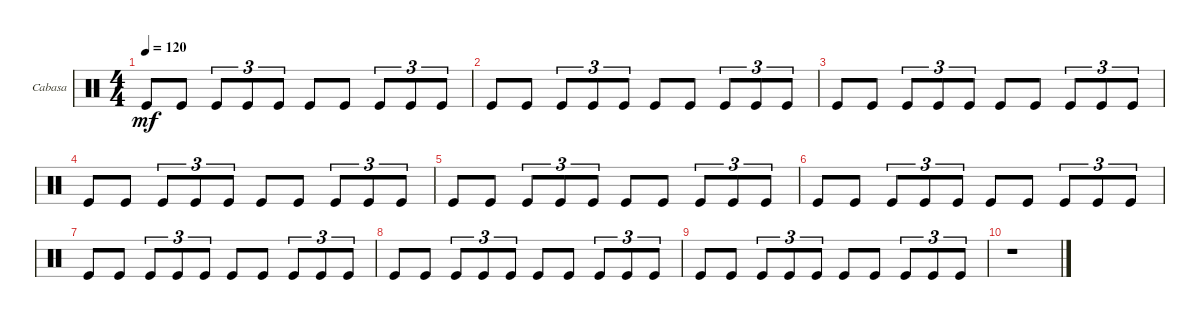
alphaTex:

\bracketExtendMode groupsimilarinstruments
\firstSystemTrackNameOrientation horizontal
\otherSystemsTrackNameOrientation horizontal
\track ("Cabasa" "Cabasa") {instrument percussion}
\staff {score}
\articulation defaults
\ts (4 4)
\tempo 120
\clef neutral
\ks c "Kick (hit)".8{dy mf} "Kick (hit)".8 "Kick (hit)".8{tu (3 2)} "Kick (hit)".8{tu (3 2)} "Kick (hit)".8{tu (3 2)} "Kick (hit)".8 "Kick (hit)".8 "Kick (hit)".8{tu (3 2)} "Kick (hit)".8{tu (3 2)} "Kick (hit)".8{tu (3 2)}
|
"Kick (hit)".8 "Kick (hit)".8 "Kick (hit)".8{tu (3 2)} "Kick (hit)".8{tu (3 2)} "Kick (hit)".8{tu (3 2)} "Kick (hit)".8 "Kick (hit)".8 "Kick (hit)".8{tu (3 2)} "Kick (hit)".8{tu (3 2)} "Kick (hit)".8{tu (3 2)} |
"Kick (hit)".8 "Kick (hit)".8 "Kick (hit)".8{tu (3 2)} "Kick (hit)".8{tu (3 2)} "Kick (hit)".8{tu (3 2)} "Kick (hit)".8 "Kick (hit)".8 "Kick (hit)".8{tu (3 2)} "Kick (hit)".8{tu (3 2)} "Kick (hit)".8{tu (3 2)} |
"Kick (hit)".8 "Kick (hit)".8 "Kick (hit)".8{tu (3 2)} "Kick (hit)".8{tu (3 2)} "Kick (hit)".8{tu (3 2)} "Kick (hit)".8 "Kick (hit)".8 "Kick (hit)".8{tu (3 2)} "Kick (hit)".8{tu (3 2)} "Kick (hit)".8{tu (3 2)} |
"Kick (hit)".8 "Kick (hit)".8 "Kick (hit)".8{tu (3 2)} "Kick (hit)".8{tu (3 2)} "Kick (hit)".8{tu (3 2)} "Kick (hit)".8 "Kick (hit)".8 "Kick (hit)".8{tu (3 2)} "Kick (hit)".8{tu (3 2)} "Kick (hit)".8{tu (3 2)} |
"Kick (hit)".8 "Kick (hit)".8 "Kick (hit)".8{tu (3 2)} "Kick (hit)".8{tu (3 2)} "Kick (hit)".8{tu (3 2)} "Kick (hit)".8 "Kick (hit)".8 "Kick (hit)".8{tu (3 2)} "Kick (hit)".8{tu (3 2)} "Kick (hit)".8{tu (3 2)} |
"Kick (hit)".8 "Kick (hit)".8 "Kick (hit)".8{tu (3 2)} "Kick (hit)".8{tu (3 2)} "Kick (hit)".8{tu (3 2)} "Kick (hit)".8 "Kick (hit)".8 "Kick (hit)".8{tu (3 2)} "Kick (hit)".8{tu (3 2)} "Kick (hit)".8{tu (3 2)} |
"Kick (hit)".8 "Kick (hit)".8 "Kick (hit)".8{tu (3 2)} "Kick (hit)".8{tu (3 2)} "Kick (hit)".8{tu (3 2)} "Kick (hit)".8 "Kick (hit)".8 "Kick (hit)".8{tu (3 2)} "Kick (hit)".8{tu (3 2)} "Kick (hit)".8{tu (3 2)} |
"Kick (hit)".8 "Kick (hit)".8 "Kick (hit)".8{tu (3 2)} "Kick (hit)".8{tu (3 2)} "Kick (hit)".8{tu (3 2)} "Kick (hit)".8 "Kick (hit)".8 "Kick (hit)".8{tu (3 2)} "Kick (hit)".8{tu (3 2)} "Kick (hit)".8{tu (3 2)} |
r.1
